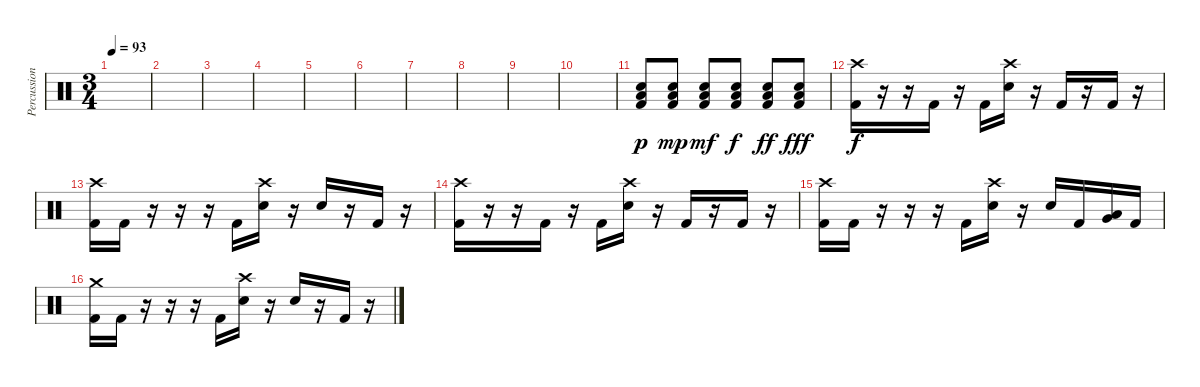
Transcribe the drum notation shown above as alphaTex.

\track ("Percussion" "Percussion") {instrument percussion}
\staff {score}
\articulation defaults
\ts (3 4)
\tempo 93
\clef neutral
\ks c
|
|
|
|
|
|
|
|
|
|
("Low Floor Tom (hit)" "Snare (hit) 2" "Kick (hit) 2").8{dy p} ("Low Floor Tom (hit)" "Snare (hit) 2" "Kick (hit) 2").8{dy mp} ("Low Floor Tom (hit)" "Snare (hit) 2" "Kick (hit) 2").8{dy mf} ("Low Floor Tom (hit)" "Snare (hit) 2" "Kick (hit) 2").8{dy f} ("Low Floor Tom (hit)" "Snare (hit) 2" "Kick (hit) 2").8{dy ff} ("Low Floor Tom (hit)" "Snare (hit) 2" "Kick (hit) 2").8{dy fff} |
("Crash high (hit)" "Kick (hit) 2").16{dy f volume 14} r.16 r.16 "Kick (hit) 2".16 r.16 "Kick (hit) 2".16 ("Crash high (hit)" "Electric Snare (hit)").16 r.16 "Kick (hit) 2".16 r.16 "Kick (hit) 2".16 r.16 |
("Crash high (hit)" "Kick (hit) 2").16 "Kick (hit) 2".16 r.16 r.16 r.16 "Kick (hit) 2".16 ("Crash high (hit)" "Electric Snare (hit)").16 r.16 "Electric Snare (hit)".16 r.16 "Kick (hit) 2".16 r.16 |
("Crash high (hit)" "Kick (hit) 2").16 r.16 r.16 "Kick (hit) 2".16 r.16 "Kick (hit) 2".16 ("Crash high (hit)" "Electric Snare (hit)").16 r.16 "Kick (hit) 2".16 r.16 "Kick (hit) 2".16 r.16 |
("Crash high (hit)" "Kick (hit) 2").16 "Kick (hit) 2".16 r.16 r.16 r.16 "Kick (hit) 2".16 ("Crash high (hit)" "Electric Snare (hit)").16 r.16 "Electric Snare (hit)".16 "Kick (hit) 2".16 ("Very Low Tom (hit)" "Low Floor Tom (hit)").16 "Kick (hit) 2".16 |
("Crash medium (hit)" "Kick (hit) 2").16 "Kick (hit) 2".16 r.16 r.16 r.16 "Kick (hit) 2".16 ("Crash high (hit)" "Electric Snare (hit)").16 r.16 "Electric Snare (hit)".16 r.16 "Kick (hit) 2".16 r.16
